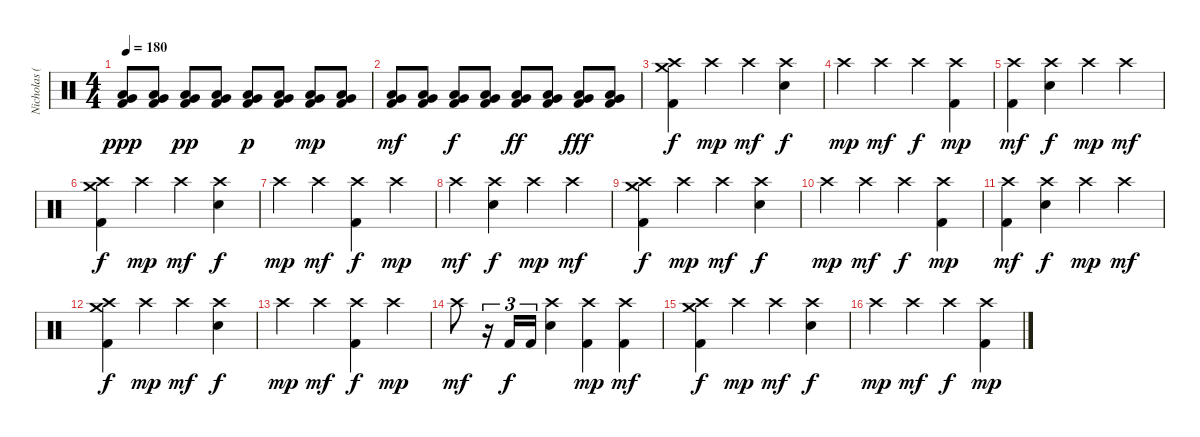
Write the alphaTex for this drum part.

\track ("Nicholas (Drums)" "Nicholas (") {instrument percussion}
\staff {score}
\articulation defaults
\ts (4 4)
\tempo 180
\clef neutral
\ks c
("Low Tom (hit)" "Very Low Tom (hit)" "Kick (hit) 2").8{dy ppp} ("Low Tom (hit)" "Very Low Tom (hit)" "Kick (hit) 2").8 ("Low Tom (hit)" "Very Low Tom (hit)" "Kick (hit) 2").8{dy pp} ("Low Tom (hit)" "Very Low Tom (hit)" "Kick (hit) 2").8 ("Low Tom (hit)" "Very Low Tom (hit)" "Kick (hit) 2").8{dy p} ("Low Tom (hit)" "Very Low Tom (hit)" "Kick (hit) 2").8 ("Low Tom (hit)" "Very Low Tom (hit)" "Kick (hit) 2").8{dy mp} ("Low Tom (hit)" "Very Low Tom (hit)" "Kick (hit) 2").8 |
("Low Tom (hit)" "Very Low Tom (hit)" "Kick (hit) 2").8{dy mf} ("Low Tom (hit)" "Very Low Tom (hit)" "Kick (hit) 2").8 ("Low Tom (hit)" "Very Low Tom (hit)" "Kick (hit) 2").8{dy f} ("Low Tom (hit)" "Very Low Tom (hit)" "Kick (hit) 2").8 ("Low Tom (hit)" "Very Low Tom (hit)" "Kick (hit) 2").8{dy ff} ("Low Tom (hit)" "Very Low Tom (hit)" "Kick (hit) 2").8 ("Low Tom (hit)" "Very Low Tom (hit)" "Kick (hit) 2").8{dy fff} ("Low Tom (hit)" "Very Low Tom (hit)" "Kick (hit) 2").8 |
("Crash medium (hit)" "Crash high (hit)" "Kick (hit) 2").4{dy f} "Crash high (hit)".4{dy mp} "Crash high (hit)".4{dy mf} ("Crash high (hit)" "Electric Snare (hit)").4{dy f} |
"Crash high (hit)".4{dy mp} "Crash high (hit)".4{dy mf} "Crash high (hit)".4{dy f} ("Crash high (hit)" "Kick (hit) 2").4{dy mp} |
("Crash high (hit)" "Kick (hit) 2").4{dy mf} ("Crash high (hit)" "Electric Snare (hit)").4{dy f} "Crash high (hit)".4{dy mp} "Crash high (hit)".4{dy mf} |
("Crash medium (hit)" "Crash high (hit)" "Kick (hit) 2").4{dy f} "Crash high (hit)".4{dy mp} "Crash high (hit)".4{dy mf} ("Crash high (hit)" "Electric Snare (hit)").4{dy f} |
"Crash high (hit)".4{dy mp} "Crash high (hit)".4{dy mf} ("Crash high (hit)" "Kick (hit) 2").4{dy f} "Crash high (hit)".4{dy mp} |
"Crash high (hit)".4{dy mf} ("Crash high (hit)" "Electric Snare (hit)").4{dy f} "Crash high (hit)".4{dy mp} "Crash high (hit)".4{dy mf} |
("Crash medium (hit)" "Crash high (hit)" "Kick (hit) 2").4{dy f} "Crash high (hit)".4{dy mp} "Crash high (hit)".4{dy mf} ("Crash high (hit)" "Electric Snare (hit)").4{dy f} |
"Crash high (hit)".4{dy mp} "Crash high (hit)".4{dy mf} "Crash high (hit)".4{dy f} ("Crash high (hit)" "Kick (hit) 2").4{dy mp} |
("Crash high (hit)" "Kick (hit) 2").4{dy mf} ("Crash high (hit)" "Electric Snare (hit)").4{dy f} "Crash high (hit)".4{dy mp} "Crash high (hit)".4{dy mf} |
("Crash medium (hit)" "Crash high (hit)" "Kick (hit) 2").4{dy f} "Crash high (hit)".4{dy mp} "Crash high (hit)".4{dy mf} ("Crash high (hit)" "Electric Snare (hit)").4{dy f} |
"Crash high (hit)".4{dy mp} "Crash high (hit)".4{dy mf} ("Crash high (hit)" "Kick (hit) 2").4{dy f} "Crash high (hit)".4{dy mp} |
"Crash high (hit)".8{dy mf} r.16{tu (3 2)} "Kick (hit) 2".16{tu (3 2) dy f} "Kick (hit) 2".16{tu (3 2)} ("Crash high (hit)" "Electric Snare (hit)").4 ("Crash high (hit)" "Kick (hit) 2").4{dy mp} ("Crash high (hit)" "Kick (hit) 2").4{dy mf} |
("Crash medium (hit)" "Crash high (hit)" "Kick (hit) 2").4{dy f} "Crash high (hit)".4{dy mp} "Crash high (hit)".4{dy mf} ("Crash high (hit)" "Electric Snare (hit)").4{dy f} |
"Crash high (hit)".4{dy mp} "Crash high (hit)".4{dy mf} "Crash high (hit)".4{dy f} ("Crash high (hit)" "Kick (hit) 2").4{dy mp}
